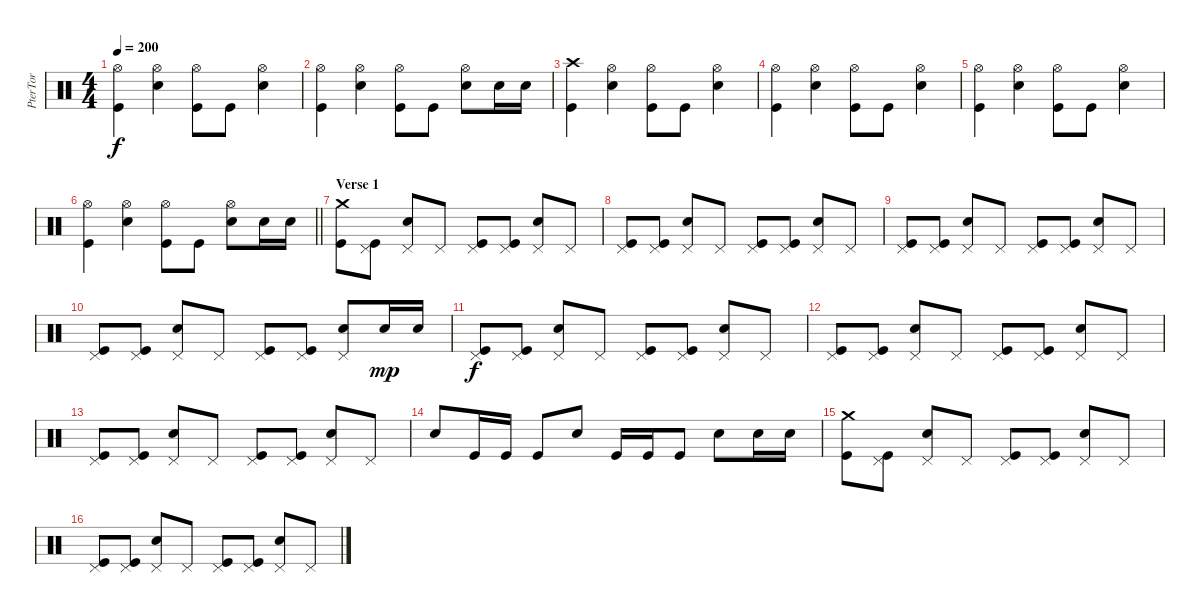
\track ("PterTor" "PterTor") {instrument percussion}
\staff {score}
\articulation defaults
\ts (4 4)
\tempo 200
\clef neutral
\ks c
("Hi-Hat (open)" "Kick (hit)").4{dy f} ("Hi-Hat (open)" "Snare (hit) 2").4 ("Hi-Hat (open)" "Kick (hit)").8 "Kick (hit)".8 ("Hi-Hat (open)" "Snare (hit) 2").4 |
("Hi-Hat (open)" "Kick (hit)").4 ("Hi-Hat (open)" "Snare (hit) 2").4 ("Hi-Hat (open)" "Kick (hit)").8 "Kick (hit)".8 ("Hi-Hat (open)" "Snare (hit) 2").8 "Snare (hit) 2".16 "Snare (hit) 2".16 |
("Crash high (hit)" "Kick (hit)").4 ("Hi-Hat (open)" "Snare (hit) 2").4 ("Hi-Hat (open)" "Kick (hit)").8 "Kick (hit)".8 ("Hi-Hat (open)" "Snare (hit) 2").4 |
("Hi-Hat (open)" "Kick (hit)").4 ("Hi-Hat (open)" "Snare (hit) 2").4 ("Hi-Hat (open)" "Kick (hit)").8 "Kick (hit)".8 ("Hi-Hat (open)" "Snare (hit) 2").4 |
("Hi-Hat (open)" "Kick (hit)").4 ("Hi-Hat (open)" "Snare (hit) 2").4 ("Hi-Hat (open)" "Kick (hit)").8 "Kick (hit)".8 ("Hi-Hat (open)" "Snare (hit) 2").4 |
\barLineRight lightlight
("Hi-Hat (open)" "Kick (hit)").4 ("Hi-Hat (open)" "Snare (hit) 2").4 ("Hi-Hat (open)" "Kick (hit)").8 "Kick (hit)".8 ("Hi-Hat (open)" "Snare (hit) 2").8 "Snare (hit) 2".16 "Snare (hit) 2".16 |
\section ("" "Verse 1")
("Crash medium (hit)" "Kick (hit)").8 ("Pedal Hi-Hat (hit)" "Kick (hit)").8 ("Pedal Hi-Hat (hit)" "Snare (hit) 2").8 "Pedal Hi-Hat (hit)".8 ("Pedal Hi-Hat (hit)" "Kick (hit)").8 ("Pedal Hi-Hat (hit)" "Kick (hit)").8 ("Pedal Hi-Hat (hit)" "Snare (hit) 2").8 "Pedal Hi-Hat (hit)".8 |
("Pedal Hi-Hat (hit)" "Kick (hit)").8 ("Pedal Hi-Hat (hit)" "Kick (hit)").8 ("Pedal Hi-Hat (hit)" "Snare (hit) 2").8 "Pedal Hi-Hat (hit)".8 ("Pedal Hi-Hat (hit)" "Kick (hit)").8 ("Pedal Hi-Hat (hit)" "Kick (hit)").8 ("Pedal Hi-Hat (hit)" "Snare (hit) 2").8 "Pedal Hi-Hat (hit)".8 |
("Pedal Hi-Hat (hit)" "Kick (hit)").8 ("Pedal Hi-Hat (hit)" "Kick (hit)").8 ("Pedal Hi-Hat (hit)" "Snare (hit) 2").8 "Pedal Hi-Hat (hit)".8 ("Pedal Hi-Hat (hit)" "Kick (hit)").8 ("Pedal Hi-Hat (hit)" "Kick (hit)").8 ("Pedal Hi-Hat (hit)" "Snare (hit) 2").8 "Pedal Hi-Hat (hit)".8 |
("Pedal Hi-Hat (hit)" "Kick (hit)").8 ("Pedal Hi-Hat (hit)" "Kick (hit)").8 ("Pedal Hi-Hat (hit)" "Snare (hit) 2").8 "Pedal Hi-Hat (hit)".8 ("Pedal Hi-Hat (hit)" "Kick (hit)").8 ("Pedal Hi-Hat (hit)" "Kick (hit)").8 ("Pedal Hi-Hat (hit)" "Snare (hit) 2").8 "Snare (hit) 2".16{dy mp} "Snare (hit) 2".16 |
("Pedal Hi-Hat (hit)" "Kick (hit)").8{dy f} ("Pedal Hi-Hat (hit)" "Kick (hit)").8 ("Pedal Hi-Hat (hit)" "Snare (hit) 2").8 "Pedal Hi-Hat (hit)".8 ("Pedal Hi-Hat (hit)" "Kick (hit)").8 ("Pedal Hi-Hat (hit)" "Kick (hit)").8 ("Pedal Hi-Hat (hit)" "Snare (hit) 2").8 "Pedal Hi-Hat (hit)".8 |
("Pedal Hi-Hat (hit)" "Kick (hit)").8 ("Pedal Hi-Hat (hit)" "Kick (hit)").8 ("Pedal Hi-Hat (hit)" "Snare (hit) 2").8 "Pedal Hi-Hat (hit)".8 ("Pedal Hi-Hat (hit)" "Kick (hit)").8 ("Pedal Hi-Hat (hit)" "Kick (hit)").8 ("Pedal Hi-Hat (hit)" "Snare (hit) 2").8 "Pedal Hi-Hat (hit)".8 |
("Pedal Hi-Hat (hit)" "Kick (hit)").8 ("Pedal Hi-Hat (hit)" "Kick (hit)").8 ("Pedal Hi-Hat (hit)" "Snare (hit) 2").8 "Pedal Hi-Hat (hit)".8 ("Pedal Hi-Hat (hit)" "Kick (hit)").8 ("Pedal Hi-Hat (hit)" "Kick (hit)").8 ("Pedal Hi-Hat (hit)" "Snare (hit) 2").8 "Pedal Hi-Hat (hit)".8 |
"Snare (hit) 2".8 "Kick (hit)".16 "Kick (hit)".16 "Kick (hit)".8 "Snare (hit) 2".8 "Kick (hit)".16 "Kick (hit)".16 "Kick (hit)".8 "Snare (hit) 2".8 "Snare (hit) 2".16 "Snare (hit) 2".16 |
("Crash medium (hit)" "Kick (hit)").8 ("Pedal Hi-Hat (hit)" "Kick (hit)").8 ("Pedal Hi-Hat (hit)" "Snare (hit) 2").8 "Pedal Hi-Hat (hit)".8 ("Pedal Hi-Hat (hit)" "Kick (hit)").8 ("Pedal Hi-Hat (hit)" "Kick (hit)").8 ("Pedal Hi-Hat (hit)" "Snare (hit) 2").8 "Pedal Hi-Hat (hit)".8 |
("Pedal Hi-Hat (hit)" "Kick (hit)").8 ("Pedal Hi-Hat (hit)" "Kick (hit)").8 ("Pedal Hi-Hat (hit)" "Snare (hit) 2").8 "Pedal Hi-Hat (hit)".8 ("Pedal Hi-Hat (hit)" "Kick (hit)").8 ("Pedal Hi-Hat (hit)" "Kick (hit)").8 ("Pedal Hi-Hat (hit)" "Snare (hit) 2").8 "Pedal Hi-Hat (hit)".8
